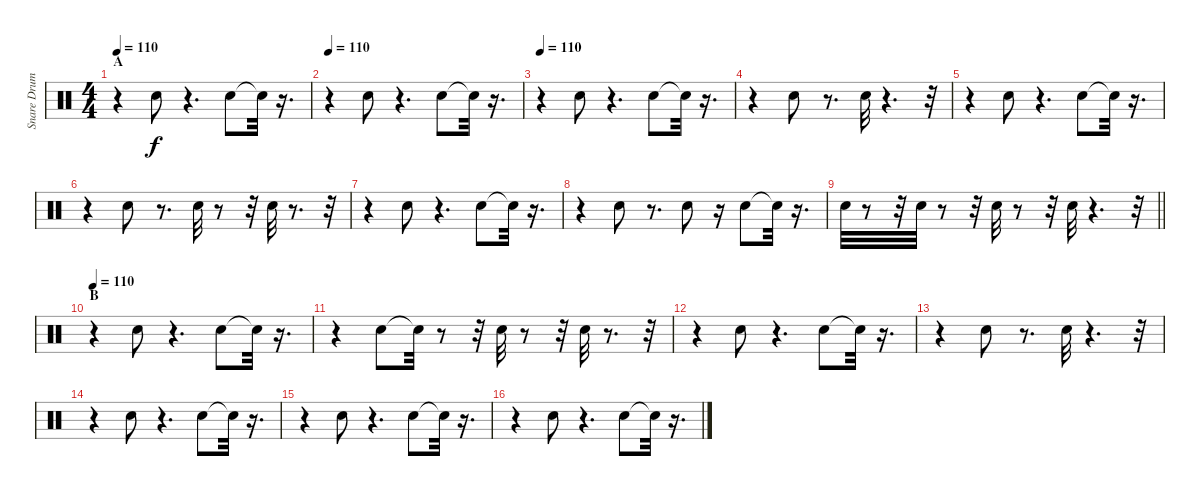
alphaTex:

\track ("Snare Drum" "Snare Drum") {instrument percussion}
\staff {score}
\articulation defaults
\ts (4 4)
\section ("" "A")
\tempo 110
\clef neutral
\ks c
r.4{dy f} "Snare (hit) 2".8 r.4{d} "Snare (hit) 2".8 "Snare (hit)"{t}.32 r.16{d} |
\tempo 110
r.4 "Snare (hit) 2".8 r.4{d} "Snare (hit) 2".8 "Snare (hit)"{t}.32 r.16{d} |
\tempo 110
r.4 "Snare (hit) 2".8 r.4{d} "Snare (hit) 2".8 "Snare (hit)"{t}.32 r.16{d} |
r.4 "Snare (hit) 2".8 r.8{d} "Snare (hit) 2".32 r.4{d} r.32 |
r.4 "Snare (hit) 2".8 r.4{d} "Snare (hit) 2".8 "Snare (hit)"{t}.32 r.16{d} |
r.4 "Snare (hit) 2".8 r.8{d} "Snare (hit) 2".32 r.8 r.32 "Snare (hit) 2".32 r.8{d} r.32 |
r.4 "Snare (hit) 2".8 r.4{d} "Snare (hit) 2".8 "Snare (hit)"{t}.32 r.16{d} |
r.4 "Snare (hit) 2".8 r.8{d} "Snare (hit) 2".8 r.16 "Snare (hit) 2".8 "Snare (hit)"{t}.32 r.16{d} |
\barLineRight lightlight "Snare (hit) 2".32
r.8 r.32 "Snare (hit) 2".32 r.8 r.32 "Snare (hit) 2".32 r.8 r.32 "Snare (hit) 2".32 r.4{d} r.32 |
\section ("" "B")
\tempo 110
r.4 "Snare (hit) 2".8 r.4{d} "Snare (hit) 2".8 "Snare (hit)"{t}.32 r.16{d} |
r.4 "Snare (hit) 2".8 "Snare (hit)"{t}.32 r.8 r.32 "Snare (hit) 2".32 r.8 r.32 "Snare (hit) 2".32 r.8{d} r.32 |
r.4 "Snare (hit) 2".8 r.4{d} "Snare (hit) 2".8 "Snare (hit)"{t}.32 r.16{d} |
r.4 "Snare (hit) 2".8 r.8{d} "Snare (hit) 2".32 r.4{d} r.32 |
r.4 "Snare (hit) 2".8 r.4{d} "Snare (hit) 2".8 "Snare (hit)"{t}.32 r.16{d} |
r.4 "Snare (hit) 2".8 r.4{d} "Snare (hit) 2".8 "Snare (hit)"{t}.32 r.16{d} |
r.4 "Snare (hit) 2".8 r.4{d} "Snare (hit) 2".8 "Snare (hit)"{t}.32 r.16{d}
